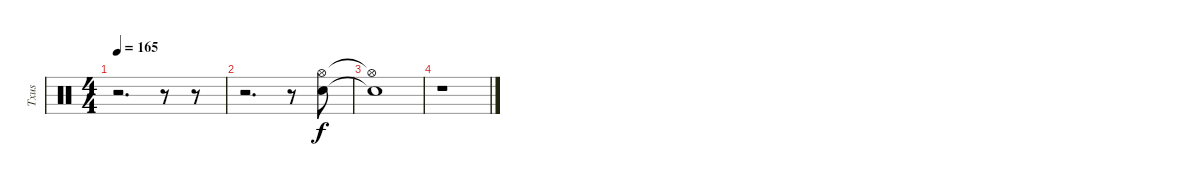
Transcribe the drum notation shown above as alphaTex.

\track ("Txus" "Txus") {instrument percussion}
\staff {score}
\articulation defaults
\ts (4 4)
\tempo 165
\clef neutral
\ks c
r.2{d dy f} r.8 r.8 |
r.2{d} r.8 ("Hi-Hat (open)" "Snare (hit) 2").8 |
("Hi-Hat (open)"{t} "Snare (hit) 2"{t}).1 |
r.1
